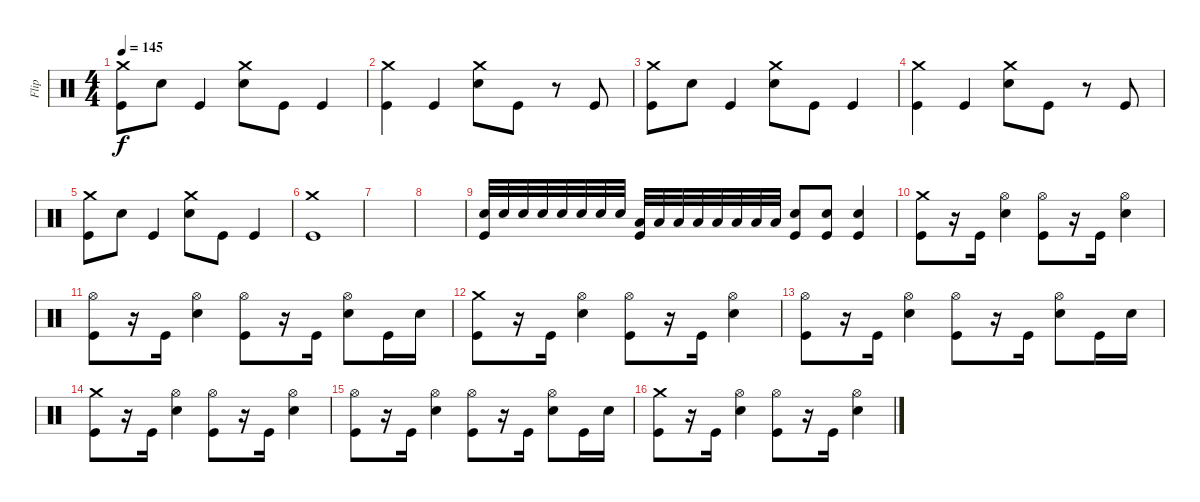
\track ("Flip" "Flip") {instrument percussion}
\staff {score}
\articulation defaults
\ts (4 4)
\tempo 145
\clef neutral
\ks c
("Crash medium (hit)" "Kick (hit)").8{dy f} "Snare (hit) 2".8 "Kick (hit)".4 ("Crash medium (hit)" "Snare (hit) 2").8 "Kick (hit)".8 "Kick (hit)".4 |
("Crash medium (hit)" "Kick (hit)").4 "Kick (hit)".4 ("Crash medium (hit)" "Snare (hit) 2").8 "Kick (hit)".8 r.8 "Kick (hit)".8 |
("Crash medium (hit)" "Kick (hit)").8 "Snare (hit) 2".8 "Kick (hit)".4 ("Crash medium (hit)" "Snare (hit) 2").8 "Kick (hit)".8 "Kick (hit)".4 |
("Crash medium (hit)" "Kick (hit)").4 "Kick (hit)".4 ("Crash medium (hit)" "Snare (hit) 2").8 "Kick (hit)".8 r.8 "Kick (hit)".8 |
("Crash medium (hit)" "Kick (hit)").8 "Snare (hit) 2".8 "Kick (hit)".4 ("Crash medium (hit)" "Snare (hit) 2").8 "Kick (hit)".8 "Kick (hit)".4 |
("Crash medium (hit)" "Kick (hit)").1 |
|
|
("Snare (hit) 2" "Kick (hit)").32 "Snare (hit) 2".32 "Snare (hit) 2".32 "Snare (hit) 2".32 "Snare (hit) 2".32 "Snare (hit) 2".32 "Snare (hit) 2".32 "Snare (hit) 2".32 ("Low Tom (hit)" "Kick (hit)").32 "Low Tom (hit)".32 "Low Tom (hit)".32 "Low Tom (hit)".32 "Low Tom (hit)".32 "Low Tom (hit)".32 "Low Tom (hit)".32 "Low Tom (hit)".32 ("Snare (hit) 2" "Kick (hit)").8 ("Snare (hit) 2" "Kick (hit)").8 ("Snare (hit) 2" "Kick (hit)").4 |
("Crash medium (hit)" "Kick (hit)").8 r.16 "Kick (hit)".16 ("Hi-Hat (open)" "Snare (hit) 2").4 ("Hi-Hat (open)" "Kick (hit)").8 r.16 "Kick (hit)".16 ("Hi-Hat (open)" "Snare (hit) 2").4 |
("Hi-Hat (open)" "Kick (hit)").8 r.16 "Kick (hit)".16 ("Hi-Hat (open)" "Snare (hit) 2").4 ("Hi-Hat (open)" "Kick (hit)").8 r.16 "Kick (hit)".16 ("Hi-Hat (open)" "Snare (hit) 2").8 "Kick (hit)".16 "Snare (hit) 2".16 |
("Crash medium (hit)" "Kick (hit)").8 r.16 "Kick (hit)".16 ("Hi-Hat (open)" "Snare (hit) 2").4 ("Hi-Hat (open)" "Kick (hit)").8 r.16 "Kick (hit)".16 ("Hi-Hat (open)" "Snare (hit) 2").4 |
("Hi-Hat (open)" "Kick (hit)").8 r.16 "Kick (hit)".16 ("Hi-Hat (open)" "Snare (hit) 2").4 ("Hi-Hat (open)" "Kick (hit)").8 r.16 "Kick (hit)".16 ("Hi-Hat (open)" "Snare (hit) 2").8 "Kick (hit)".16 "Snare (hit) 2".16 |
("Crash medium (hit)" "Kick (hit)").8 r.16 "Kick (hit)".16 ("Hi-Hat (open)" "Snare (hit) 2").4 ("Hi-Hat (open)" "Kick (hit)").8 r.16 "Kick (hit)".16 ("Hi-Hat (open)" "Snare (hit) 2").4 |
("Hi-Hat (open)" "Kick (hit)").8 r.16 "Kick (hit)".16 ("Hi-Hat (open)" "Snare (hit) 2").4 ("Hi-Hat (open)" "Kick (hit)").8 r.16 "Kick (hit)".16 ("Hi-Hat (open)" "Snare (hit) 2").8 "Kick (hit)".16 "Snare (hit) 2".16 |
("Crash medium (hit)" "Kick (hit)").8 r.16 "Kick (hit)".16 ("Hi-Hat (open)" "Snare (hit) 2").4 ("Hi-Hat (open)" "Kick (hit)").8 r.16 "Kick (hit)".16 ("Hi-Hat (open)" "Snare (hit) 2").4
